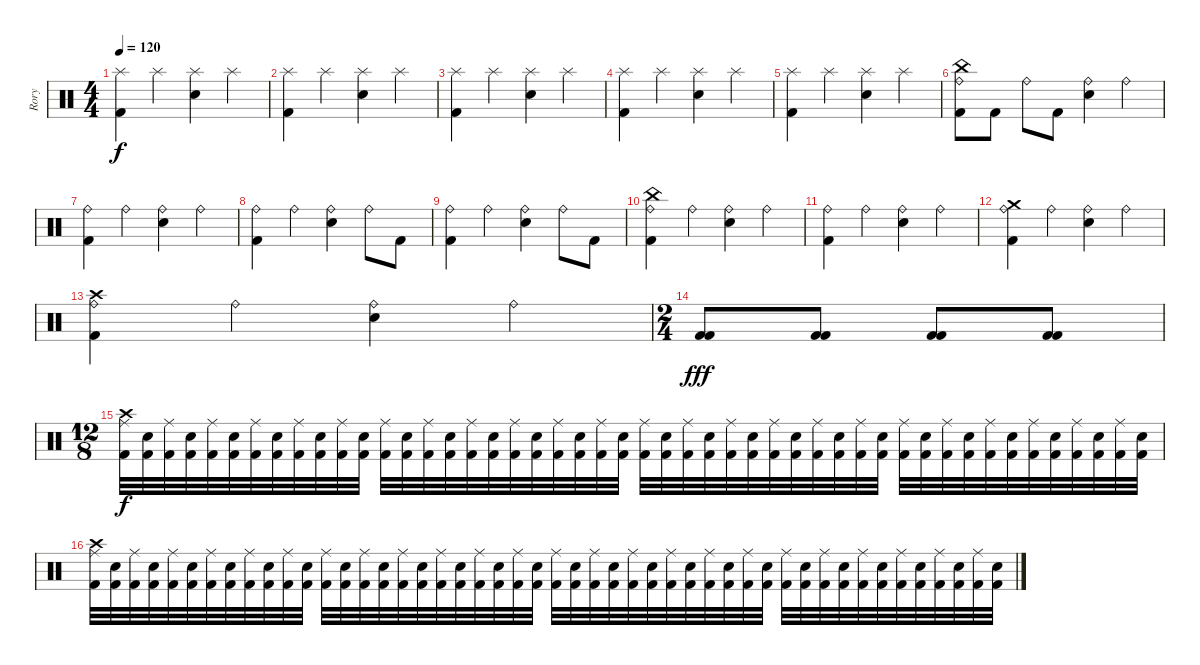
\track ("Rory" "Rory") {instrument percussion}
\staff {score}
\articulation defaults
\ts (4 4)
\tempo 120
\clef neutral
\ks c
("Kick (hit) 2" "Splash (hit)").4{dy f} "Splash (hit)".4 ("Splash (hit)" "Electric Snare (hit)").4 "Splash (hit)".4 |
("Kick (hit) 2" "Splash (hit)").4 "Splash (hit)".4 ("Splash (hit)" "Electric Snare (hit)").4 "Splash (hit)".4 |
("Kick (hit) 2" "Splash (hit)").4 "Splash (hit)".4 ("Splash (hit)" "Electric Snare (hit)").4 "Splash (hit)".4 |
("Kick (hit) 2" "Splash (hit)").4 "Splash (hit)".4 ("Splash (hit)" "Electric Snare (hit)").4 "Splash (hit)".4 |
("Kick (hit) 2" "Splash (hit)").4 "Splash (hit)".4 ("Splash (hit)" "Electric Snare (hit)").4 "Splash (hit)".4 |
("Kick (hit) 2" "Ride (bell)" "China (hit)").8 "Kick (hit) 2".8 "Ride (bell)".8 "Kick (hit) 2".8 ("Ride (bell)" "Electric Snare (hit)").4 "Ride (bell)".4 |
("Kick (hit) 2" "Ride (bell)").4 "Ride (bell)".4 ("Ride (bell)" "Electric Snare (hit)").4 "Ride (bell)".4 |
("Kick (hit) 2" "Ride (bell)").4 "Ride (bell)".4 ("Ride (bell)" "Electric Snare (hit)").4 "Ride (bell)".8 "Kick (hit) 2".8 |
("Kick (hit) 2" "Ride (bell)").4 "Ride (bell)".4 ("Ride (bell)" "Electric Snare (hit)").4 "Ride (bell)".8 "Kick (hit) 2".8 |
("Kick (hit) 2" "Ride (bell)" "China (hit)").4 "Ride (bell)".4 ("Ride (bell)" "Electric Snare (hit)").4 "Ride (bell)".4 |
("Kick (hit) 2" "Ride (bell)").4 "Ride (bell)".4 ("Ride (bell)" "Electric Snare (hit)").4 "Ride (bell)".4 |
("Kick (hit) 2" "Ride (bell)" "Crash medium (hit)").4 "Ride (bell)".4 ("Ride (bell)" "Electric Snare (hit)").4 "Ride (bell)".4 |
("Kick (hit) 2" "Ride (bell)" "Crash high (hit)").4 "Ride (bell)".4 ("Ride (bell)" "Electric Snare (hit)").4 "Ride (bell)".4 |
\ts (2 4)
("Kick (hit) 2" "Kick (hit) 2").8{dy fff} ("Kick (hit) 2" "Kick (hit) 2").8 ("Kick (hit) 2" "Kick (hit) 2").8 ("Kick (hit) 2" "Kick (hit) 2").8 |
\ts (12 8)
("Kick (hit) 2" "Crash high (hit)" "Ride (middle)").32{dy f} ("Kick (hit) 2" "Electric Snare (hit)").32 ("Kick (hit) 2" "Ride (middle)").32 ("Kick (hit) 2" "Electric Snare (hit)").32 ("Kick (hit) 2" "Ride (middle)").32 ("Kick (hit) 2" "Electric Snare (hit)").32 ("Kick (hit) 2" "Ride (middle)").32 ("Kick (hit) 2" "Electric Snare (hit)").32 ("Kick (hit) 2" "Ride (middle)").32 ("Kick (hit) 2" "Electric Snare (hit)").32 ("Kick (hit) 2" "Ride (middle)").32 ("Kick (hit) 2" "Electric Snare (hit)").32 ("Kick (hit) 2" "Ride (middle)").32 ("Kick (hit) 2" "Electric Snare (hit)").32 ("Kick (hit) 2" "Ride (middle)").32 ("Kick (hit) 2" "Electric Snare (hit)").32 ("Kick (hit) 2" "Ride (middle)").32 ("Kick (hit) 2" "Electric Snare (hit)").32 ("Kick (hit) 2" "Ride (middle)").32 ("Kick (hit) 2" "Electric Snare (hit)").32 ("Kick (hit) 2" "Ride (middle)").32 ("Kick (hit) 2" "Electric Snare (hit)").32 ("Kick (hit) 2" "Ride (middle)").32 ("Kick (hit) 2" "Electric Snare (hit)").32 ("Kick (hit) 2" "Ride (middle)").32 ("Kick (hit) 2" "Electric Snare (hit)").32 ("Kick (hit) 2" "Ride (middle)").32 ("Kick (hit) 2" "Electric Snare (hit)").32 ("Kick (hit) 2" "Ride (middle)").32 ("Kick (hit) 2" "Electric Snare (hit)").32 ("Kick (hit) 2" "Ride (middle)").32 ("Kick (hit) 2" "Electric Snare (hit)").32 ("Kick (hit) 2" "Ride (middle)").32 ("Kick (hit) 2" "Electric Snare (hit)").32 ("Kick (hit) 2" "Ride (middle)").32 ("Kick (hit) 2" "Electric Snare (hit)").32 ("Kick (hit) 2" "Ride (middle)").32 ("Kick (hit) 2" "Electric Snare (hit)").32 ("Kick (hit) 2" "Ride (middle)").32 ("Kick (hit) 2" "Electric Snare (hit)").32 ("Kick (hit) 2" "Ride (middle)").32 ("Kick (hit) 2" "Electric Snare (hit)").32 ("Kick (hit) 2" "Ride (middle)").32 ("Kick (hit) 2" "Electric Snare (hit)").32 ("Kick (hit) 2" "Ride (middle)").32 ("Kick (hit) 2" "Electric Snare (hit)").32 ("Kick (hit) 2" "Ride (middle)").32 ("Kick (hit) 2" "Electric Snare (hit)").32 |
("Kick (hit) 2" "Crash high (hit)" "Ride (middle)").32 ("Kick (hit) 2" "Electric Snare (hit)").32 ("Kick (hit) 2" "Ride (middle)").32 ("Kick (hit) 2" "Electric Snare (hit)").32 ("Kick (hit) 2" "Ride (middle)").32 ("Kick (hit) 2" "Electric Snare (hit)").32 ("Kick (hit) 2" "Ride (middle)").32 ("Kick (hit) 2" "Electric Snare (hit)").32 ("Kick (hit) 2" "Ride (middle)").32 ("Kick (hit) 2" "Electric Snare (hit)").32 ("Kick (hit) 2" "Ride (middle)").32 ("Kick (hit) 2" "Electric Snare (hit)").32 ("Kick (hit) 2" "Ride (middle)").32 ("Kick (hit) 2" "Electric Snare (hit)").32 ("Kick (hit) 2" "Ride (middle)").32 ("Kick (hit) 2" "Electric Snare (hit)").32 ("Kick (hit) 2" "Ride (middle)").32 ("Kick (hit) 2" "Electric Snare (hit)").32 ("Kick (hit) 2" "Ride (middle)").32 ("Kick (hit) 2" "Electric Snare (hit)").32 ("Kick (hit) 2" "Ride (middle)").32 ("Kick (hit) 2" "Electric Snare (hit)").32 ("Kick (hit) 2" "Ride (middle)").32 ("Kick (hit) 2" "Electric Snare (hit)").32 ("Kick (hit) 2" "Ride (middle)").32 ("Kick (hit) 2" "Electric Snare (hit)").32 ("Kick (hit) 2" "Ride (middle)").32 ("Kick (hit) 2" "Electric Snare (hit)").32 ("Kick (hit) 2" "Ride (middle)").32 ("Kick (hit) 2" "Electric Snare (hit)").32 ("Kick (hit) 2" "Ride (middle)").32 ("Kick (hit) 2" "Electric Snare (hit)").32 ("Kick (hit) 2" "Ride (middle)").32 ("Kick (hit) 2" "Electric Snare (hit)").32 ("Kick (hit) 2" "Ride (middle)").32 ("Kick (hit) 2" "Electric Snare (hit)").32 ("Kick (hit) 2" "Ride (middle)").32 ("Kick (hit) 2" "Electric Snare (hit)").32 ("Kick (hit) 2" "Ride (middle)").32 ("Kick (hit) 2" "Electric Snare (hit)").32 ("Kick (hit) 2" "Ride (middle)").32 ("Kick (hit) 2" "Electric Snare (hit)").32 ("Kick (hit) 2" "Ride (middle)").32 ("Kick (hit) 2" "Electric Snare (hit)").32 ("Kick (hit) 2" "Ride (middle)").32 ("Kick (hit) 2" "Electric Snare (hit)").32 ("Kick (hit) 2" "Ride (middle)").32 ("Kick (hit) 2" "Electric Snare (hit)").32
